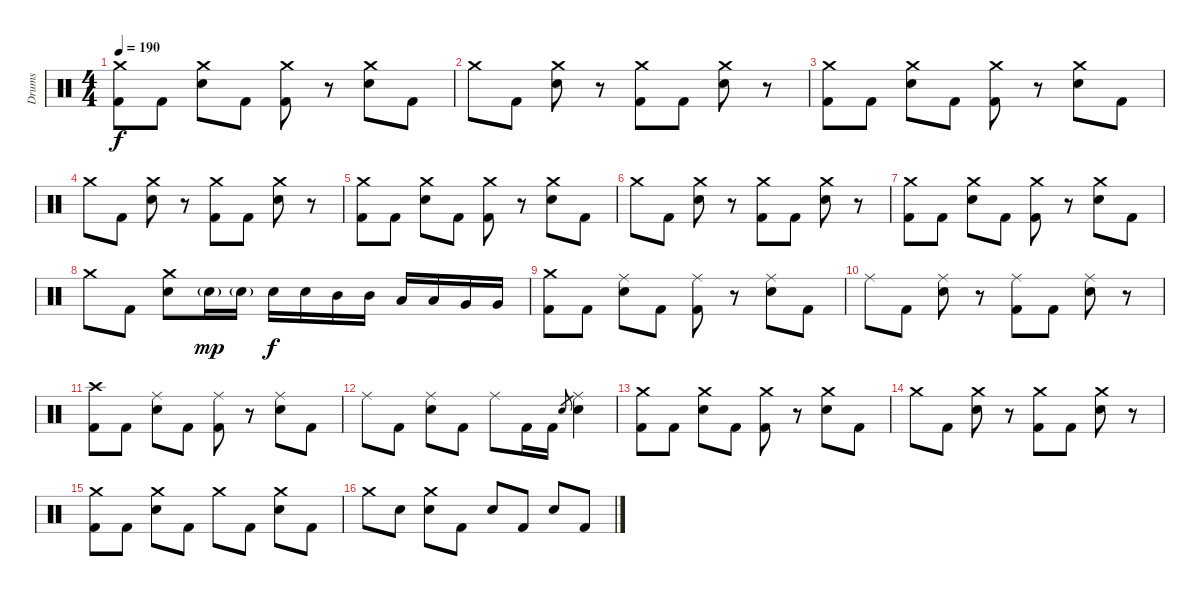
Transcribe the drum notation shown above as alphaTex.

\track ("Drums" "Drums") {instrument percussion}
\staff {score}
\articulation defaults
\ts (4 4)
\tempo 190
\clef neutral
\ks c
("Crash medium (hit)" "Kick (hit) 2").8{dy f} "Kick (hit) 2".8 ("Crash medium (hit)" "Electric Snare (hit)").8 "Kick (hit) 2".8 ("Crash medium (hit)" "Kick (hit) 2").8 r.8 ("Crash medium (hit)" "Electric Snare (hit)").8 "Kick (hit) 2".8 |
"Crash medium (hit)".8 "Kick (hit) 2".8 ("Crash medium (hit)" "Electric Snare (hit)").8 r.8 ("Crash medium (hit)" "Kick (hit) 2").8 "Kick (hit) 2".8 ("Crash medium (hit)" "Electric Snare (hit)").8 r.8 |
("Crash medium (hit)" "Kick (hit) 2").8 "Kick (hit) 2".8 ("Crash medium (hit)" "Electric Snare (hit)").8 "Kick (hit) 2".8 ("Crash medium (hit)" "Kick (hit) 2").8 r.8 ("Crash medium (hit)" "Electric Snare (hit)").8 "Kick (hit) 2".8 |
"Crash medium (hit)".8 "Kick (hit) 2".8 ("Crash medium (hit)" "Electric Snare (hit)").8 r.8 ("Crash medium (hit)" "Kick (hit) 2").8 "Kick (hit) 2".8 ("Crash medium (hit)" "Electric Snare (hit)").8 r.8 |
("Crash medium (hit)" "Kick (hit) 2").8 "Kick (hit) 2".8 ("Crash medium (hit)" "Electric Snare (hit)").8 "Kick (hit) 2".8 ("Crash medium (hit)" "Kick (hit) 2").8 r.8 ("Crash medium (hit)" "Electric Snare (hit)").8 "Kick (hit) 2".8 |
"Crash medium (hit)".8 "Kick (hit) 2".8 ("Crash medium (hit)" "Electric Snare (hit)").8 r.8 ("Crash medium (hit)" "Kick (hit) 2").8 "Kick (hit) 2".8 ("Crash medium (hit)" "Electric Snare (hit)").8 r.8 |
("Crash medium (hit)" "Kick (hit) 2").8 "Kick (hit) 2".8 ("Crash medium (hit)" "Electric Snare (hit)").8 "Kick (hit) 2".8 ("Crash medium (hit)" "Kick (hit) 2").8 r.8 ("Crash medium (hit)" "Electric Snare (hit)").8 "Kick (hit) 2".8 |
"Crash medium (hit)".8 "Kick (hit) 2".8 ("Crash medium (hit)" "Electric Snare (hit)").8 "Electric Snare (hit)"{g}.16{dy mp} "Electric Snare (hit)"{g}.16 "Electric Snare (hit)".16{dy f} "Electric Snare (hit)".16 "Mid Tom (hit)".16 "Mid Tom (hit)".16 "Low Tom (hit)".16 "Low Tom (hit)".16 "Very Low Tom (hit)".16 "Very Low Tom (hit)".16 |
("Crash medium (hit)" "Kick (hit) 2").8 "Kick (hit) 2".8 ("Ride (middle)" "Electric Snare (hit)").8 "Kick (hit) 2".8 ("Ride (middle)" "Kick (hit) 2").8 r.8 ("Ride (middle)" "Electric Snare (hit)").8 "Kick (hit) 2".8 |
"Ride (middle)".8 "Kick (hit) 2".8 ("Ride (middle)" "Electric Snare (hit)").8 r.8 ("Ride (middle)" "Kick (hit) 2").8 "Kick (hit) 2".8 ("Ride (middle)" "Electric Snare (hit)").8 r.8 |
("Crash high (hit)" "Kick (hit) 2").8 "Kick (hit) 2".8 ("Ride (middle)" "Electric Snare (hit)").8 "Kick (hit) 2".8 ("Ride (middle)" "Kick (hit) 2").8 r.8 ("Ride (middle)" "Electric Snare (hit)").8 "Kick (hit) 2".8 |
"Ride (middle)".8 "Kick (hit) 2".8 ("Ride (middle)" "Electric Snare (hit)").8 "Kick (hit) 2".8 "Ride (middle)".8 "Kick (hit) 2".16 "Kick (hit) 2".16 "Electric Snare (hit)".8{gr} ("Ride (middle)" "Electric Snare (hit)").4 |
("Crash medium (hit)" "Kick (hit) 2").8 "Kick (hit) 2".8 ("Crash medium (hit)" "Electric Snare (hit)").8 "Kick (hit) 2".8 ("Crash medium (hit)" "Kick (hit) 2").8 r.8 ("Crash medium (hit)" "Electric Snare (hit)").8 "Kick (hit) 2".8 |
"Crash medium (hit)".8 "Kick (hit) 2".8 ("Crash medium (hit)" "Electric Snare (hit)").8 r.8 ("Crash medium (hit)" "Kick (hit) 2").8 "Kick (hit) 2".8 ("Crash medium (hit)" "Electric Snare (hit)").8 r.8 |
("Crash medium (hit)" "Kick (hit) 2").8 "Kick (hit) 2".8 ("Crash medium (hit)" "Electric Snare (hit)").8 "Kick (hit) 2".8 "Crash medium (hit)".8 "Kick (hit) 2".8 ("Crash medium (hit)" "Electric Snare (hit)").8 "Kick (hit) 2".8 |
"Crash medium (hit)".8 "Electric Snare (hit)".8 ("Crash medium (hit)" "Electric Snare (hit)").8 "Kick (hit) 2".8 "Electric Snare (hit)".8 "Kick (hit) 2".8 "Electric Snare (hit)".8 "Kick (hit) 2".8
